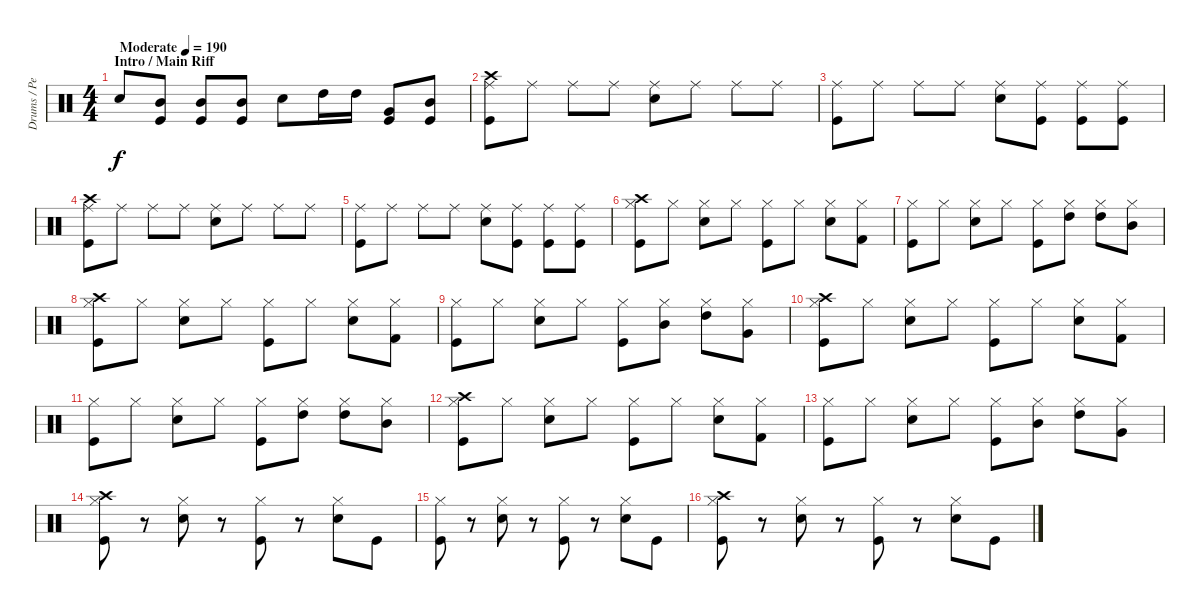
\track ("Drums / Percussion" "Drums / Pe") {instrument percussion}
\staff {score}
\articulation defaults
\ts (4 4)
\section ("" "Intro / Main Riff")
\tempo (190 "Moderate")
\clef neutral
\ks c "Electric Snare (hit)".8{dy f}
("Mid Tom (hit)" "Kick (hit)").8 ("Mid Tom (hit)" "Kick (hit)").8 ("Mid Tom (hit)" "Kick (hit)").8 "Electric Snare (hit)".8 "High Tom (hit)".16 "High Tom (hit)".16 ("Very Low Tom (hit)" "Kick (hit)").8 ("Mid Tom (hit)" "Kick (hit)").8 |
("Ride (middle)" "Crash high (hit)" "Kick (hit)").8 "Ride (middle)".8 "Ride (middle)".8 "Ride (middle)".8 ("Ride (middle)" "Electric Snare (hit)").8 "Ride (middle)".8 "Ride (middle)".8 "Ride (middle)".8 |
("Ride (middle)" "Kick (hit)").8 "Ride (middle)".8 "Ride (middle)".8 "Ride (middle)".8 ("Ride (middle)" "Electric Snare (hit)").8 ("Ride (middle)" "Kick (hit)").8 ("Ride (middle)" "Kick (hit)").8 ("Ride (middle)" "Kick (hit)").8 |
("Ride (middle)" "Crash high (hit)" "Kick (hit)").8 "Ride (middle)".8 "Ride (middle)".8 "Ride (middle)".8 ("Ride (middle)" "Electric Snare (hit)").8 "Ride (middle)".8 "Ride (middle)".8 "Ride (middle)".8 |
("Ride (middle)" "Kick (hit)").8 "Ride (middle)".8 "Ride (middle)".8 "Ride (middle)".8 ("Ride (middle)" "Electric Snare (hit)").8 ("Ride (middle)" "Kick (hit)").8 ("Ride (middle)" "Kick (hit)").8 ("Ride (middle)" "Kick (hit)").8 |
("Hi-Hat (closed)" "Crash high (hit)" "Kick (hit)").8 "Hi-Hat (closed)".8 ("Hi-Hat (closed)" "Electric Snare (hit)").8 "Hi-Hat (closed)".8 ("Hi-Hat (closed)" "Kick (hit)").8 "Hi-Hat (closed)".8 ("Hi-Hat (closed)" "Electric Snare (hit)").8 ("Hi-Hat (closed)" "Kick (hit) 2").8 |
("Hi-Hat (closed)" "Kick (hit)").8 "Hi-Hat (closed)".8 ("Hi-Hat (closed)" "Electric Snare (hit)").8 "Hi-Hat (closed)".8 ("Hi-Hat (closed)" "Kick (hit)").8 ("Hi-Hat (closed)" "High Tom (hit)").8 ("Hi-Hat (closed)" "High Tom (hit)").8 ("Hi-Hat (closed)" "Mid Tom (hit)").8 |
("Hi-Hat (closed)" "Crash high (hit)" "Kick (hit)").8 "Hi-Hat (closed)".8 ("Hi-Hat (closed)" "Electric Snare (hit)").8 "Hi-Hat (closed)".8 ("Hi-Hat (closed)" "Kick (hit)").8 "Hi-Hat (closed)".8 ("Hi-Hat (closed)" "Electric Snare (hit)").8 ("Hi-Hat (closed)" "Kick (hit) 2").8 |
("Hi-Hat (closed)" "Kick (hit)").8 "Hi-Hat (closed)".8 ("Hi-Hat (closed)" "Electric Snare (hit)").8 "Hi-Hat (closed)".8 ("Hi-Hat (closed)" "Kick (hit)").8 ("Hi-Hat (closed)" "Mid Tom (hit)").8 ("Hi-Hat (closed)" "High Tom (hit)").8 ("Hi-Hat (closed)" "Very Low Tom (hit)").8 |
("Hi-Hat (closed)" "Crash high (hit)" "Kick (hit)").8 "Hi-Hat (closed)".8 ("Hi-Hat (closed)" "Electric Snare (hit)").8 "Hi-Hat (closed)".8 ("Hi-Hat (closed)" "Kick (hit)").8 "Hi-Hat (closed)".8 ("Hi-Hat (closed)" "Electric Snare (hit)").8 ("Hi-Hat (closed)" "Kick (hit) 2").8 |
("Hi-Hat (closed)" "Kick (hit)").8 "Hi-Hat (closed)".8 ("Hi-Hat (closed)" "Electric Snare (hit)").8 "Hi-Hat (closed)".8 ("Hi-Hat (closed)" "Kick (hit)").8 ("Hi-Hat (closed)" "High Tom (hit)").8 ("Hi-Hat (closed)" "High Tom (hit)").8 ("Hi-Hat (closed)" "Mid Tom (hit)").8 |
("Hi-Hat (closed)" "Crash high (hit)" "Kick (hit)").8 "Hi-Hat (closed)".8 ("Hi-Hat (closed)" "Electric Snare (hit)").8 "Hi-Hat (closed)".8 ("Hi-Hat (closed)" "Kick (hit)").8 "Hi-Hat (closed)".8 ("Hi-Hat (closed)" "Electric Snare (hit)").8 ("Hi-Hat (closed)" "Kick (hit) 2").8 |
("Hi-Hat (closed)" "Kick (hit)").8 "Hi-Hat (closed)".8 ("Hi-Hat (closed)" "Electric Snare (hit)").8 "Hi-Hat (closed)".8 ("Hi-Hat (closed)" "Kick (hit)").8 ("Hi-Hat (closed)" "Mid Tom (hit)").8 ("Hi-Hat (closed)" "High Tom (hit)").8 ("Hi-Hat (closed)" "Very Low Tom (hit)").8 |
("Hi-Hat (closed)" "Crash high (hit)" "Kick (hit)").8 r.8 ("Hi-Hat (closed)" "Electric Snare (hit)").8 r.8 ("Hi-Hat (closed)" "Kick (hit)").8 r.8 ("Hi-Hat (closed)" "Electric Snare (hit)").8 "Kick (hit)".8 |
("Hi-Hat (closed)" "Kick (hit)").8 r.8 ("Hi-Hat (closed)" "Electric Snare (hit)").8 r.8 ("Hi-Hat (closed)" "Kick (hit)").8 r.8 ("Hi-Hat (closed)" "Electric Snare (hit)").8 "Kick (hit)".8 |
("Hi-Hat (closed)" "Crash high (hit)" "Kick (hit)").8 r.8 ("Hi-Hat (closed)" "Electric Snare (hit)").8 r.8 ("Hi-Hat (closed)" "Kick (hit)").8 r.8 ("Hi-Hat (closed)" "Electric Snare (hit)").8 "Kick (hit)".8
